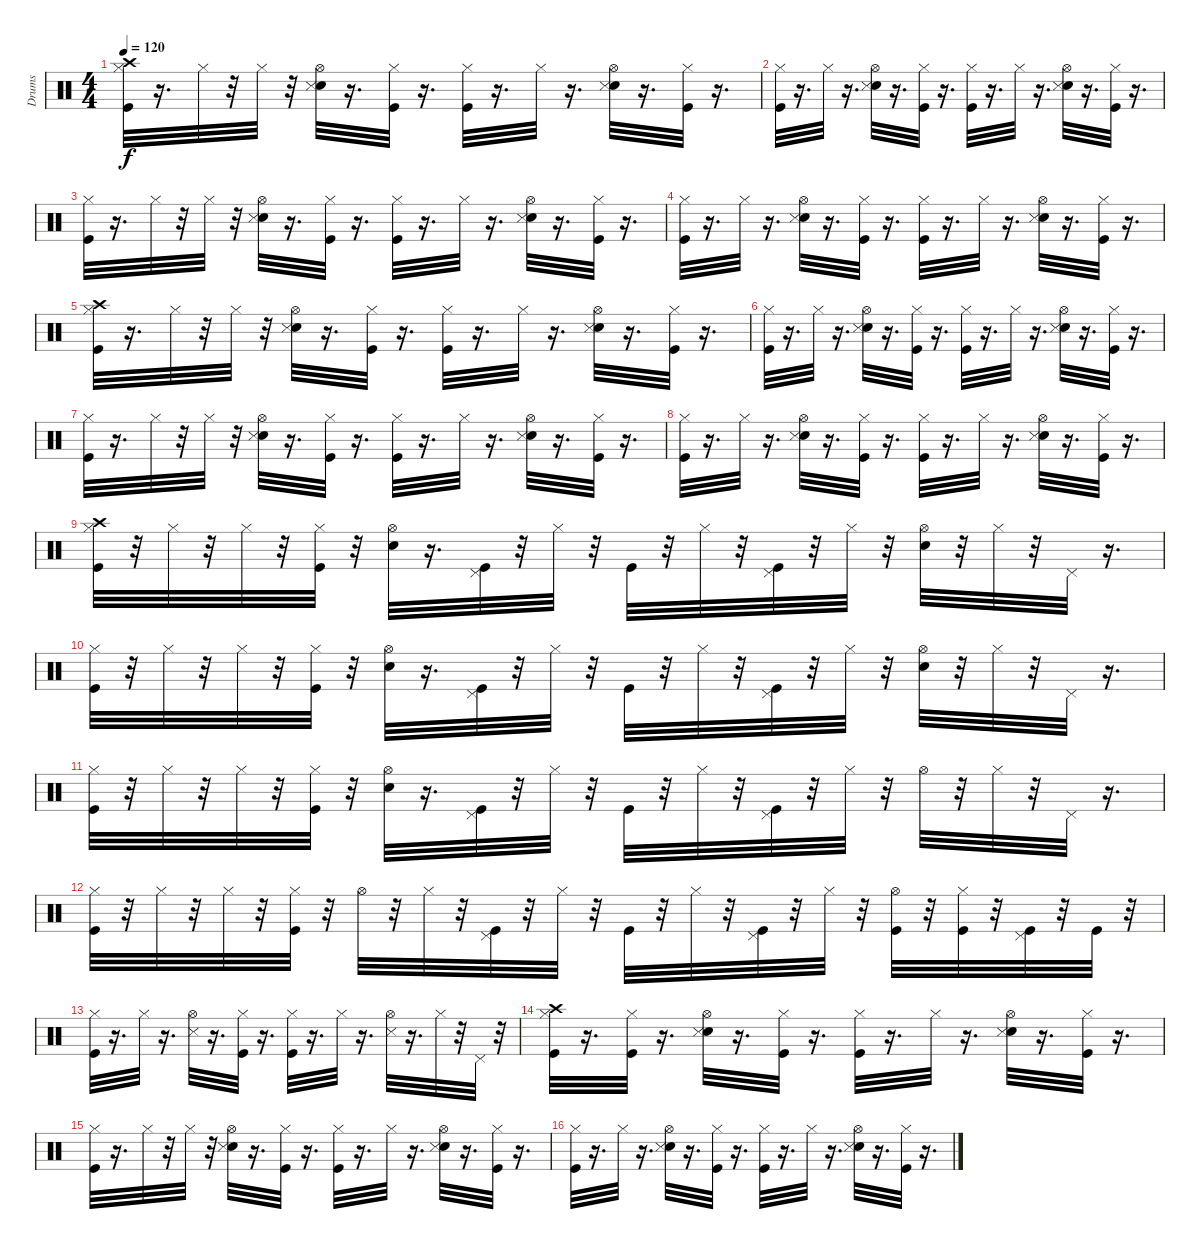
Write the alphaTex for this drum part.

\track ("Drums" "Drums") {instrument percussion}
\staff {score}
\articulation defaults
\ts (4 4)
\tempo 120
\clef neutral
\ks c
("Crash high (hit)" "Hi-Hat (closed)" "Kick (hit)").32{dy f} r.16{d} "Hi-Hat (closed)".32 r.32 "Hi-Hat (closed)".32 r.32 ("Snare (hit) 2" "Hi-Hat (open)" "Snare (side stick) 3").32 r.16{d} ("Hi-Hat (closed)" "Kick (hit)").32 r.16{d} ("Hi-Hat (closed)" "Kick (hit)").32 r.16{d} "Hi-Hat (closed)".32 r.16{d} ("Snare (hit) 2" "Hi-Hat (open)" "Snare (side stick) 3").32 r.16{d} ("Kick (hit)" "Hi-Hat (closed)").32 r.16{d} |
("Hi-Hat (closed)" "Kick (hit)").32 r.16{d} "Hi-Hat (closed)".32 r.16{d} ("Snare (hit) 2" "Hi-Hat (open)" "Snare (side stick) 3").32 r.16{d} ("Hi-Hat (closed)" "Kick (hit)").32 r.16{d} ("Hi-Hat (closed)" "Kick (hit)").32 r.16{d} "Hi-Hat (closed)".32 r.16{d} ("Snare (hit) 2" "Hi-Hat (open)" "Snare (side stick) 3").32 r.16{d} ("Kick (hit)" "Hi-Hat (closed)").32 r.16{d} |
("Hi-Hat (closed)" "Kick (hit)").32 r.16{d} "Hi-Hat (closed)".32 r.32 "Hi-Hat (closed)".32 r.32 ("Snare (hit) 2" "Hi-Hat (open)" "Snare (side stick) 3").32 r.16{d} ("Hi-Hat (closed)" "Kick (hit)").32 r.16{d} ("Hi-Hat (closed)" "Kick (hit)").32 r.16{d} "Hi-Hat (closed)".32 r.16{d} ("Snare (hit) 2" "Hi-Hat (open)" "Snare (side stick) 3").32 r.16{d} ("Kick (hit)" "Hi-Hat (closed)").32 r.16{d} |
("Hi-Hat (closed)" "Kick (hit)").32 r.16{d} "Hi-Hat (closed)".32 r.16{d} ("Snare (hit) 2" "Hi-Hat (open)" "Snare (side stick) 3").32 r.16{d} ("Hi-Hat (closed)" "Kick (hit)").32 r.16{d} ("Hi-Hat (closed)" "Kick (hit)").32 r.16{d} "Hi-Hat (closed)".32 r.16{d} ("Snare (hit) 2" "Hi-Hat (open)" "Snare (side stick) 3").32 r.16{d} ("Kick (hit)" "Hi-Hat (closed)").32 r.16{d} |
("Crash high (hit)" "Hi-Hat (closed)" "Kick (hit)").32 r.16{d} "Hi-Hat (closed)".32 r.32 "Hi-Hat (closed)".32 r.32 ("Snare (hit) 2" "Hi-Hat (open)" "Snare (side stick) 3").32 r.16{d} ("Hi-Hat (closed)" "Kick (hit)").32 r.16{d} ("Hi-Hat (closed)" "Kick (hit)").32 r.16{d} "Hi-Hat (closed)".32 r.16{d} ("Snare (hit) 2" "Hi-Hat (open)" "Snare (side stick) 3").32 r.16{d} ("Kick (hit)" "Hi-Hat (closed)").32 r.16{d} |
("Hi-Hat (closed)" "Kick (hit)").32 r.16{d} "Hi-Hat (closed)".32 r.16{d} ("Snare (hit) 2" "Hi-Hat (open)" "Snare (side stick) 3").32 r.16{d} ("Hi-Hat (closed)" "Kick (hit)").32 r.16{d} ("Hi-Hat (closed)" "Kick (hit)").32 r.16{d} "Hi-Hat (closed)".32 r.16{d} ("Snare (hit) 2" "Hi-Hat (open)" "Snare (side stick) 3").32 r.16{d} ("Kick (hit)" "Hi-Hat (closed)").32 r.16{d} |
("Hi-Hat (closed)" "Kick (hit)").32 r.16{d} "Hi-Hat (closed)".32 r.32 "Hi-Hat (closed)".32 r.32 ("Snare (hit) 2" "Hi-Hat (open)" "Snare (side stick) 3").32 r.16{d} ("Hi-Hat (closed)" "Kick (hit)").32 r.16{d} ("Hi-Hat (closed)" "Kick (hit)").32 r.16{d} "Hi-Hat (closed)".32 r.16{d} ("Snare (hit) 2" "Hi-Hat (open)" "Snare (side stick) 3").32 r.16{d} ("Kick (hit)" "Hi-Hat (closed)").32 r.16{d} |
("Hi-Hat (closed)" "Kick (hit)").32 r.16{d} "Hi-Hat (closed)".32 r.16{d} ("Snare (hit) 2" "Hi-Hat (open)" "Snare (side stick) 3").32 r.16{d} ("Hi-Hat (closed)" "Kick (hit)").32 r.16{d} ("Hi-Hat (closed)" "Kick (hit)").32 r.16{d} "Hi-Hat (closed)".32 r.16{d} ("Snare (hit) 2" "Hi-Hat (open)" "Snare (side stick) 3").32 r.16{d} ("Kick (hit)" "Hi-Hat (closed)").32 r.16{d} |
("Crash high (hit)" "Hi-Hat (closed)" "Kick (hit)").32 r.32 "Hi-Hat (closed)".32 r.32 "Hi-Hat (closed)".32 r.32 ("Kick (hit)" "Hi-Hat (closed)").32 r.32 ("Hi-Hat (open)" "Snare (hit) 2").32 r.16{d} ("Pedal Hi-Hat (hit)" "Kick (hit)").32 r.32 "Hi-Hat (closed)".32 r.32 "Kick (hit)".32 r.32 "Hi-Hat (closed)".32 r.32 ("Kick (hit)" "Pedal Hi-Hat (hit)").32 r.32 "Hi-Hat (closed)".32 r.32 ("Hi-Hat (open)" "Snare (hit) 2").32 r.32 "Hi-Hat (closed)".32 r.32 "Pedal Hi-Hat (hit)".32 r.16{d} |
("Hi-Hat (closed)" "Kick (hit)").32 r.32 "Hi-Hat (closed)".32 r.32 "Hi-Hat (closed)".32 r.32 ("Kick (hit)" "Hi-Hat (closed)").32 r.32 ("Hi-Hat (open)" "Snare (hit) 2").32 r.16{d} ("Pedal Hi-Hat (hit)" "Kick (hit)").32 r.32 "Hi-Hat (closed)".32 r.32 "Kick (hit)".32 r.32 "Hi-Hat (closed)".32 r.32 ("Kick (hit)" "Pedal Hi-Hat (hit)").32 r.32 "Hi-Hat (closed)".32 r.32 ("Hi-Hat (open)" "Snare (hit) 2").32 r.32 "Hi-Hat (closed)".32 r.32 "Pedal Hi-Hat (hit)".32 r.16{d} |
("Hi-Hat (closed)" "Kick (hit)").32 r.32 "Hi-Hat (closed)".32 r.32 "Hi-Hat (closed)".32 r.32 ("Kick (hit)" "Hi-Hat (closed)").32 r.32 ("Hi-Hat (open)" "Snare (hit) 2").32 r.16{d} ("Pedal Hi-Hat (hit)" "Kick (hit)").32 r.32 "Hi-Hat (closed)".32 r.32 "Kick (hit)".32 r.32 "Hi-Hat (closed)".32 r.32 ("Kick (hit)" "Pedal Hi-Hat (hit)").32 r.32 "Hi-Hat (closed)".32 r.32 "Hi-Hat (open)".32 r.32 "Hi-Hat (closed)".32 r.32 "Pedal Hi-Hat (hit)".32 r.16{d} |
("Hi-Hat (closed)" "Kick (hit)").32 r.32 "Hi-Hat (closed)".32 r.32 "Hi-Hat (closed)".32 r.32 ("Kick (hit)" "Hi-Hat (closed)").32 r.32 "Hi-Hat (open)".32 r.32 "Hi-Hat (closed)".32 r.32 ("Pedal Hi-Hat (hit)" "Kick (hit)").32 r.32 "Hi-Hat (closed)".32 r.32 "Kick (hit)".32 r.32 "Hi-Hat (closed)".32 r.32 ("Kick (hit)" "Pedal Hi-Hat (hit)").32 r.32 "Hi-Hat (closed)".32 r.32 ("Kick (hit)" "Hi-Hat (open)").32 r.32 ("Kick (hit)" "Hi-Hat (closed)").32 r.32 ("Kick (hit)" "Pedal Hi-Hat (hit)").32 r.32 "Kick (hit)".32 r.32 |
("Hi-Hat (closed)" "Kick (hit)").32 r.16{d} "Hi-Hat (closed)".32 r.16{d} ("Hi-Hat (open)" "Snare (side stick) 3").32 r.16{d} ("Hi-Hat (closed)" "Kick (hit)").32 r.16{d} ("Hi-Hat (closed)" "Kick (hit)").32 r.16{d} "Hi-Hat (closed)".32 r.16{d} ("Hi-Hat (open)" "Snare (side stick) 3").32 r.16{d} "Hi-Hat (closed)".32 r.32 "Pedal Hi-Hat (hit)".32 r.32 |
("Crash high (hit)" "Hi-Hat (closed)" "Kick (hit)").32 r.16{d} ("Kick (hit)" "Hi-Hat (closed)").32 r.16{d} ("Snare (hit) 2" "Hi-Hat (open)" "Snare (side stick) 3").32 r.16{d} ("Hi-Hat (closed)" "Kick (hit)").32 r.16{d} ("Hi-Hat (closed)" "Kick (hit)").32 r.16{d} "Hi-Hat (closed)".32 r.16{d} ("Snare (hit) 2" "Hi-Hat (open)" "Snare (side stick) 3").32 r.16{d} ("Kick (hit)" "Hi-Hat (closed)").32 r.16{d} |
("Hi-Hat (closed)" "Kick (hit)").32 r.16{d} "Hi-Hat (closed)".32 r.32 "Hi-Hat (closed)".32 r.32 ("Snare (hit) 2" "Hi-Hat (open)" "Snare (side stick) 3").32 r.16{d} ("Hi-Hat (closed)" "Kick (hit)").32 r.16{d} ("Hi-Hat (closed)" "Kick (hit)").32 r.16{d} "Hi-Hat (closed)".32 r.16{d} ("Snare (hit) 2" "Hi-Hat (open)" "Snare (side stick) 3").32 r.16{d} ("Kick (hit)" "Hi-Hat (closed)").32 r.16{d} |
("Hi-Hat (closed)" "Kick (hit)").32 r.16{d} "Hi-Hat (closed)".32 r.16{d} ("Snare (hit) 2" "Hi-Hat (open)" "Snare (side stick) 3").32 r.16{d} ("Hi-Hat (closed)" "Kick (hit)").32 r.16{d} ("Hi-Hat (closed)" "Kick (hit)").32 r.16{d} "Hi-Hat (closed)".32 r.16{d} ("Snare (hit) 2" "Hi-Hat (open)" "Snare (side stick) 3").32 r.16{d} ("Kick (hit)" "Hi-Hat (closed)").32 r.16{d}
